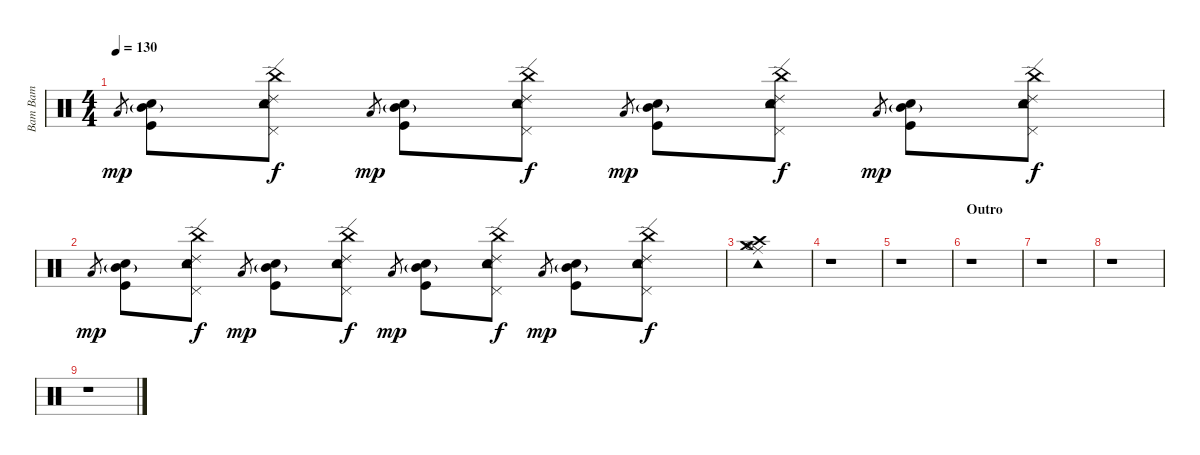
\track ("Bam Bam" "Bam Bam") {instrument percussion}
\staff {score}
\articulation defaults
\ts (4 4)
\tempo 130
\clef neutral
\ks c "Low Tom (hit)".8{gr dy mp}
("Mid Tom (hit)"{g} "Kick (hit)" "Snare (hit) 2").8 ("Tambourine (hit)" "Pedal Hi-Hat (hit)" "China (hit)" "Ride (edge) 2" "Electric Snare (hit)").8{dy f} "Low Tom (hit)".8{gr dy mp} ("Mid Tom (hit)"{g} "Kick (hit)" "Snare (hit) 2").8 ("Tambourine (hit)" "Pedal Hi-Hat (hit)" "China (hit)" "Ride (edge) 2" "Electric Snare (hit)").8{dy f} "Low Tom (hit)".8{gr dy mp} ("Mid Tom (hit)"{g} "Kick (hit)" "Snare (hit) 2").8 ("Tambourine (hit)" "Pedal Hi-Hat (hit)" "China (hit)" "Ride (edge) 2" "Electric Snare (hit)").8{dy f} "Low Tom (hit)".8{gr dy mp} ("Mid Tom (hit)"{g} "Kick (hit)" "Snare (hit) 2").8 ("Tambourine (hit)" "Pedal Hi-Hat (hit)" "China (hit)" "Ride (edge) 2" "Electric Snare (hit)").8{dy f} |
"Low Tom (hit)".8{gr dy mp} ("Mid Tom (hit)"{g} "Kick (hit)" "Snare (hit) 2").8 ("Tambourine (hit)" "Pedal Hi-Hat (hit)" "China (hit)" "Ride (edge) 2" "Electric Snare (hit)").8{dy f} "Low Tom (hit)".8{gr dy mp} ("Mid Tom (hit)"{g} "Kick (hit)" "Snare (hit) 2").8 ("Tambourine (hit)" "Pedal Hi-Hat (hit)" "China (hit)" "Ride (edge) 2" "Electric Snare (hit)").8{dy f} "Low Tom (hit)".8{gr dy mp} ("Mid Tom (hit)"{g} "Kick (hit)" "Snare (hit) 2").8 ("Tambourine (hit)" "Pedal Hi-Hat (hit)" "China (hit)" "Ride (edge) 2" "Electric Snare (hit)").8{dy f} "Low Tom (hit)".8{gr dy mp} ("Mid Tom (hit)"{g} "Kick (hit)" "Snare (hit) 2").8 ("Tambourine (hit)" "Pedal Hi-Hat (hit)" "China (hit)" "Ride (edge) 2" "Electric Snare (hit)").8{dy f} |
("Ride (middle)" "Tambourine (hit)" "Crash medium (hit)" "Hi-Hat (open)" "Crash high (hit)").1 |
r.1 |
r.1 |
\section ("" "Outro")
r.1 |
r.1 |
r.1 |
r.1
